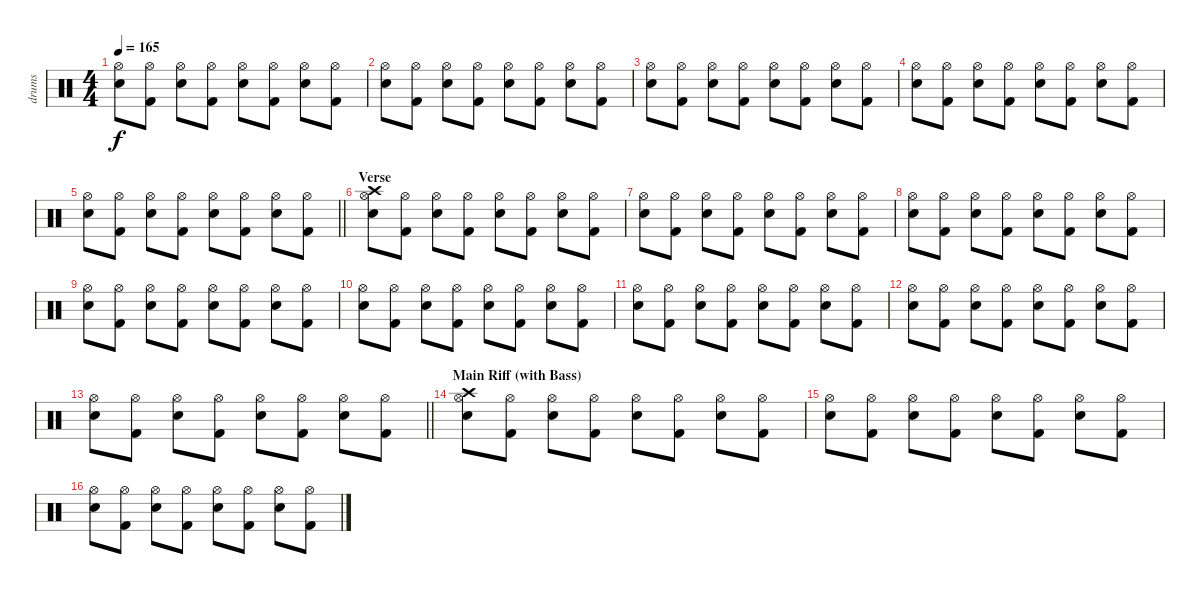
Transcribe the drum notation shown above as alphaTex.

\track ("drums" "drums") {instrument percussion}
\staff {score}
\articulation defaults
\ts (4 4)
\tempo 165
\clef neutral
\ks c
("Hi-Hat (open)" "Electric Snare (hit)").8{dy f} ("Hi-Hat (open)" "Kick (hit) 2").8 ("Hi-Hat (open)" "Electric Snare (hit)").8 ("Hi-Hat (open)" "Kick (hit) 2").8 ("Hi-Hat (open)" "Electric Snare (hit)").8 ("Hi-Hat (open)" "Kick (hit) 2").8 ("Hi-Hat (open)" "Electric Snare (hit)").8 ("Hi-Hat (open)" "Kick (hit) 2").8 |
("Hi-Hat (open)" "Electric Snare (hit)").8 ("Hi-Hat (open)" "Kick (hit) 2").8 ("Hi-Hat (open)" "Electric Snare (hit)").8 ("Hi-Hat (open)" "Kick (hit) 2").8 ("Hi-Hat (open)" "Electric Snare (hit)").8 ("Hi-Hat (open)" "Kick (hit) 2").8 ("Hi-Hat (open)" "Electric Snare (hit)").8 ("Hi-Hat (open)" "Kick (hit) 2").8 |
("Hi-Hat (open)" "Electric Snare (hit)").8 ("Hi-Hat (open)" "Kick (hit) 2").8 ("Hi-Hat (open)" "Electric Snare (hit)").8 ("Hi-Hat (open)" "Kick (hit) 2").8 ("Hi-Hat (open)" "Electric Snare (hit)").8 ("Hi-Hat (open)" "Kick (hit) 2").8 ("Hi-Hat (open)" "Electric Snare (hit)").8 ("Hi-Hat (open)" "Kick (hit) 2").8 |
("Hi-Hat (open)" "Electric Snare (hit)").8 ("Hi-Hat (open)" "Kick (hit) 2").8 ("Hi-Hat (open)" "Electric Snare (hit)").8 ("Hi-Hat (open)" "Kick (hit) 2").8 ("Hi-Hat (open)" "Electric Snare (hit)").8 ("Hi-Hat (open)" "Kick (hit) 2").8 ("Hi-Hat (open)" "Electric Snare (hit)").8 ("Hi-Hat (open)" "Kick (hit) 2").8 |
\barLineRight lightlight
("Hi-Hat (open)" "Electric Snare (hit)").8 ("Hi-Hat (open)" "Kick (hit) 2").8 ("Hi-Hat (open)" "Electric Snare (hit)").8 ("Hi-Hat (open)" "Kick (hit) 2").8 ("Hi-Hat (open)" "Electric Snare (hit)").8 ("Hi-Hat (open)" "Kick (hit) 2").8 ("Hi-Hat (open)" "Electric Snare (hit)").8 ("Hi-Hat (open)" "Kick (hit) 2").8 |
\section ("" "Verse")
("Crash high (hit)" "Hi-Hat (open)" "Electric Snare (hit)").8 ("Hi-Hat (open)" "Kick (hit) 2").8 ("Hi-Hat (open)" "Electric Snare (hit)").8 ("Hi-Hat (open)" "Kick (hit) 2").8 ("Hi-Hat (open)" "Electric Snare (hit)").8 ("Hi-Hat (open)" "Kick (hit) 2").8 ("Hi-Hat (open)" "Electric Snare (hit)").8 ("Hi-Hat (open)" "Kick (hit) 2").8 |
("Hi-Hat (open)" "Electric Snare (hit)").8 ("Hi-Hat (open)" "Kick (hit) 2").8 ("Hi-Hat (open)" "Electric Snare (hit)").8 ("Hi-Hat (open)" "Kick (hit) 2").8 ("Hi-Hat (open)" "Electric Snare (hit)").8 ("Hi-Hat (open)" "Kick (hit) 2").8 ("Hi-Hat (open)" "Electric Snare (hit)").8 ("Hi-Hat (open)" "Kick (hit) 2").8 |
("Hi-Hat (open)" "Electric Snare (hit)").8 ("Hi-Hat (open)" "Kick (hit) 2").8 ("Hi-Hat (open)" "Electric Snare (hit)").8 ("Hi-Hat (open)" "Kick (hit) 2").8 ("Hi-Hat (open)" "Electric Snare (hit)").8 ("Hi-Hat (open)" "Kick (hit) 2").8 ("Hi-Hat (open)" "Electric Snare (hit)").8 ("Hi-Hat (open)" "Kick (hit) 2").8 |
("Hi-Hat (open)" "Electric Snare (hit)").8 ("Hi-Hat (open)" "Kick (hit) 2").8 ("Hi-Hat (open)" "Electric Snare (hit)").8 ("Hi-Hat (open)" "Kick (hit) 2").8 ("Hi-Hat (open)" "Electric Snare (hit)").8 ("Hi-Hat (open)" "Kick (hit) 2").8 ("Hi-Hat (open)" "Electric Snare (hit)").8 ("Hi-Hat (open)" "Kick (hit) 2").8 |
("Hi-Hat (open)" "Electric Snare (hit)").8 ("Hi-Hat (open)" "Kick (hit) 2").8 ("Hi-Hat (open)" "Electric Snare (hit)").8 ("Hi-Hat (open)" "Kick (hit) 2").8 ("Hi-Hat (open)" "Electric Snare (hit)").8 ("Hi-Hat (open)" "Kick (hit) 2").8 ("Hi-Hat (open)" "Electric Snare (hit)").8 ("Hi-Hat (open)" "Kick (hit) 2").8 |
("Hi-Hat (open)" "Electric Snare (hit)").8 ("Hi-Hat (open)" "Kick (hit) 2").8 ("Hi-Hat (open)" "Electric Snare (hit)").8 ("Hi-Hat (open)" "Kick (hit) 2").8 ("Hi-Hat (open)" "Electric Snare (hit)").8 ("Hi-Hat (open)" "Kick (hit) 2").8 ("Hi-Hat (open)" "Electric Snare (hit)").8 ("Hi-Hat (open)" "Kick (hit) 2").8 |
("Hi-Hat (open)" "Electric Snare (hit)").8 ("Hi-Hat (open)" "Kick (hit) 2").8 ("Hi-Hat (open)" "Electric Snare (hit)").8 ("Hi-Hat (open)" "Kick (hit) 2").8 ("Hi-Hat (open)" "Electric Snare (hit)").8 ("Hi-Hat (open)" "Kick (hit) 2").8 ("Hi-Hat (open)" "Electric Snare (hit)").8 ("Hi-Hat (open)" "Kick (hit) 2").8 |
\barLineRight lightlight
("Hi-Hat (open)" "Electric Snare (hit)").8 ("Hi-Hat (open)" "Kick (hit) 2").8 ("Hi-Hat (open)" "Electric Snare (hit)").8 ("Hi-Hat (open)" "Kick (hit) 2").8 ("Hi-Hat (open)" "Electric Snare (hit)").8 ("Hi-Hat (open)" "Kick (hit) 2").8 ("Hi-Hat (open)" "Electric Snare (hit)").8 ("Hi-Hat (open)" "Kick (hit) 2").8 |
\section ("" "Main Riff (with Bass)")
("Crash high (hit)" "Hi-Hat (open)" "Electric Snare (hit)").8 ("Hi-Hat (open)" "Kick (hit) 2").8 ("Hi-Hat (open)" "Electric Snare (hit)").8 ("Hi-Hat (open)" "Kick (hit) 2").8 ("Hi-Hat (open)" "Electric Snare (hit)").8 ("Hi-Hat (open)" "Kick (hit) 2").8 ("Hi-Hat (open)" "Electric Snare (hit)").8 ("Hi-Hat (open)" "Kick (hit) 2").8 |
("Hi-Hat (open)" "Electric Snare (hit)").8 ("Hi-Hat (open)" "Kick (hit) 2").8 ("Hi-Hat (open)" "Electric Snare (hit)").8 ("Hi-Hat (open)" "Kick (hit) 2").8 ("Hi-Hat (open)" "Electric Snare (hit)").8 ("Hi-Hat (open)" "Kick (hit) 2").8 ("Hi-Hat (open)" "Electric Snare (hit)").8 ("Hi-Hat (open)" "Kick (hit) 2").8 |
("Hi-Hat (open)" "Electric Snare (hit)").8 ("Hi-Hat (open)" "Kick (hit) 2").8 ("Hi-Hat (open)" "Electric Snare (hit)").8 ("Hi-Hat (open)" "Kick (hit) 2").8 ("Hi-Hat (open)" "Electric Snare (hit)").8 ("Hi-Hat (open)" "Kick (hit) 2").8 ("Hi-Hat (open)" "Electric Snare (hit)").8 ("Hi-Hat (open)" "Kick (hit) 2").8
